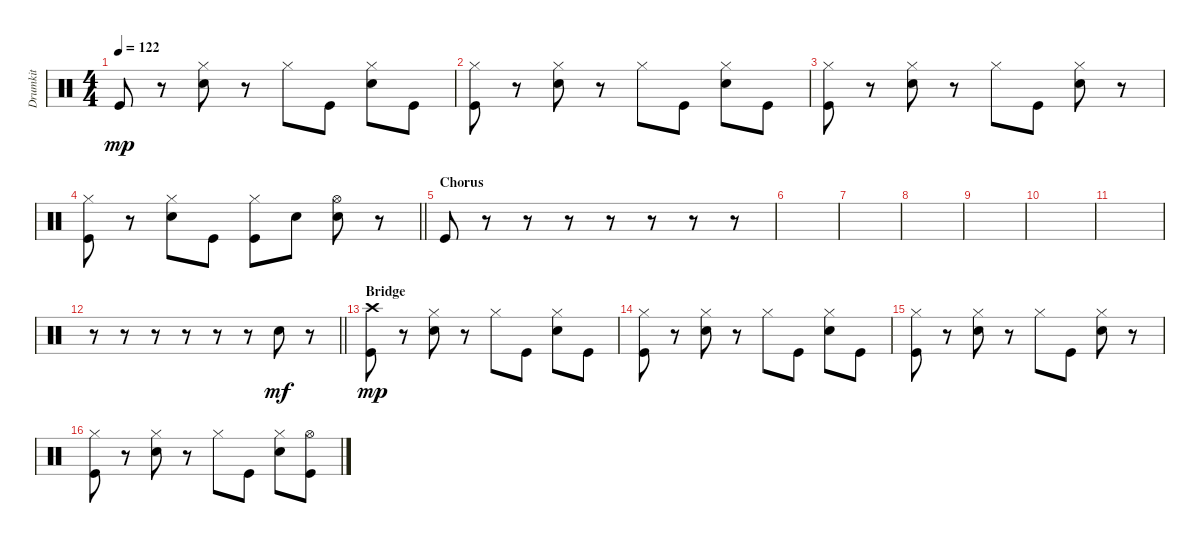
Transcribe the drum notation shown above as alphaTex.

\track ("Drumkit" "Drumkit") {instrument percussion}
\staff {score}
\articulation defaults
\ts (4 4)
\tempo 122
\clef neutral
\ks c "Kick (hit)".8{dy mp}
r.8 ("Snare (hit) 2" "Hi-Hat (closed)").8 r.8 "Hi-Hat (closed)".8 "Kick (hit)".8 ("Snare (hit) 2" "Hi-Hat (closed)").8 "Kick (hit)".8 |
("Kick (hit)" "Hi-Hat (closed)").8 r.8 ("Snare (hit) 2" "Hi-Hat (closed)").8 r.8 "Hi-Hat (closed)".8 "Kick (hit)".8 ("Snare (hit) 2" "Hi-Hat (closed)").8 "Kick (hit)".8 |
("Kick (hit)" "Hi-Hat (closed)").8 r.8 ("Snare (hit) 2" "Hi-Hat (closed)").8 r.8 "Hi-Hat (closed)".8 "Kick (hit)".8 ("Snare (hit) 2" "Hi-Hat (closed)").8 r.8 |
\barLineRight lightlight
("Hi-Hat (closed)" "Kick (hit)").8 r.8 ("Snare (hit) 2" "Hi-Hat (closed)").8 "Kick (hit)".8 ("Hi-Hat (closed)" "Kick (hit)").8 "Snare (hit) 2".8 ("Snare (hit) 2" "Hi-Hat (open)").8 r.8 |
\section ("" "Chorus")
"Kick (hit)".8 r.8 r.8 r.8 r.8 r.8 r.8 r.8 |
|
|
|
|
|
|
\barLineRight lightlight
r.8 r.8 r.8 r.8 r.8 r.8 "Snare (hit) 2".8{dy mf} r.8 |
\section ("" "Bridge")
("Kick (hit)" "Crash high (hit)").8{dy mp} r.8 ("Snare (hit) 2" "Hi-Hat (closed)").8 r.8 "Hi-Hat (closed)".8 "Kick (hit)".8 ("Snare (hit) 2" "Hi-Hat (closed)").8 "Kick (hit)".8 |
("Kick (hit)" "Hi-Hat (closed)").8 r.8 ("Snare (hit) 2" "Hi-Hat (closed)").8 r.8 "Hi-Hat (closed)".8 "Kick (hit)".8 ("Snare (hit) 2" "Hi-Hat (closed)").8 "Kick (hit)".8 |
("Kick (hit)" "Hi-Hat (closed)").8 r.8 ("Snare (hit) 2" "Hi-Hat (closed)").8 r.8 "Hi-Hat (closed)".8 "Kick (hit)".8 ("Snare (hit) 2" "Hi-Hat (closed)").8 r.8 |
("Kick (hit)" "Hi-Hat (closed)").8 r.8 ("Snare (hit) 2" "Hi-Hat (closed)").8 r.8 "Hi-Hat (closed)".8 "Kick (hit)".8 ("Snare (hit) 2" "Hi-Hat (closed)").8 ("Kick (hit)" "Hi-Hat (open)").8
